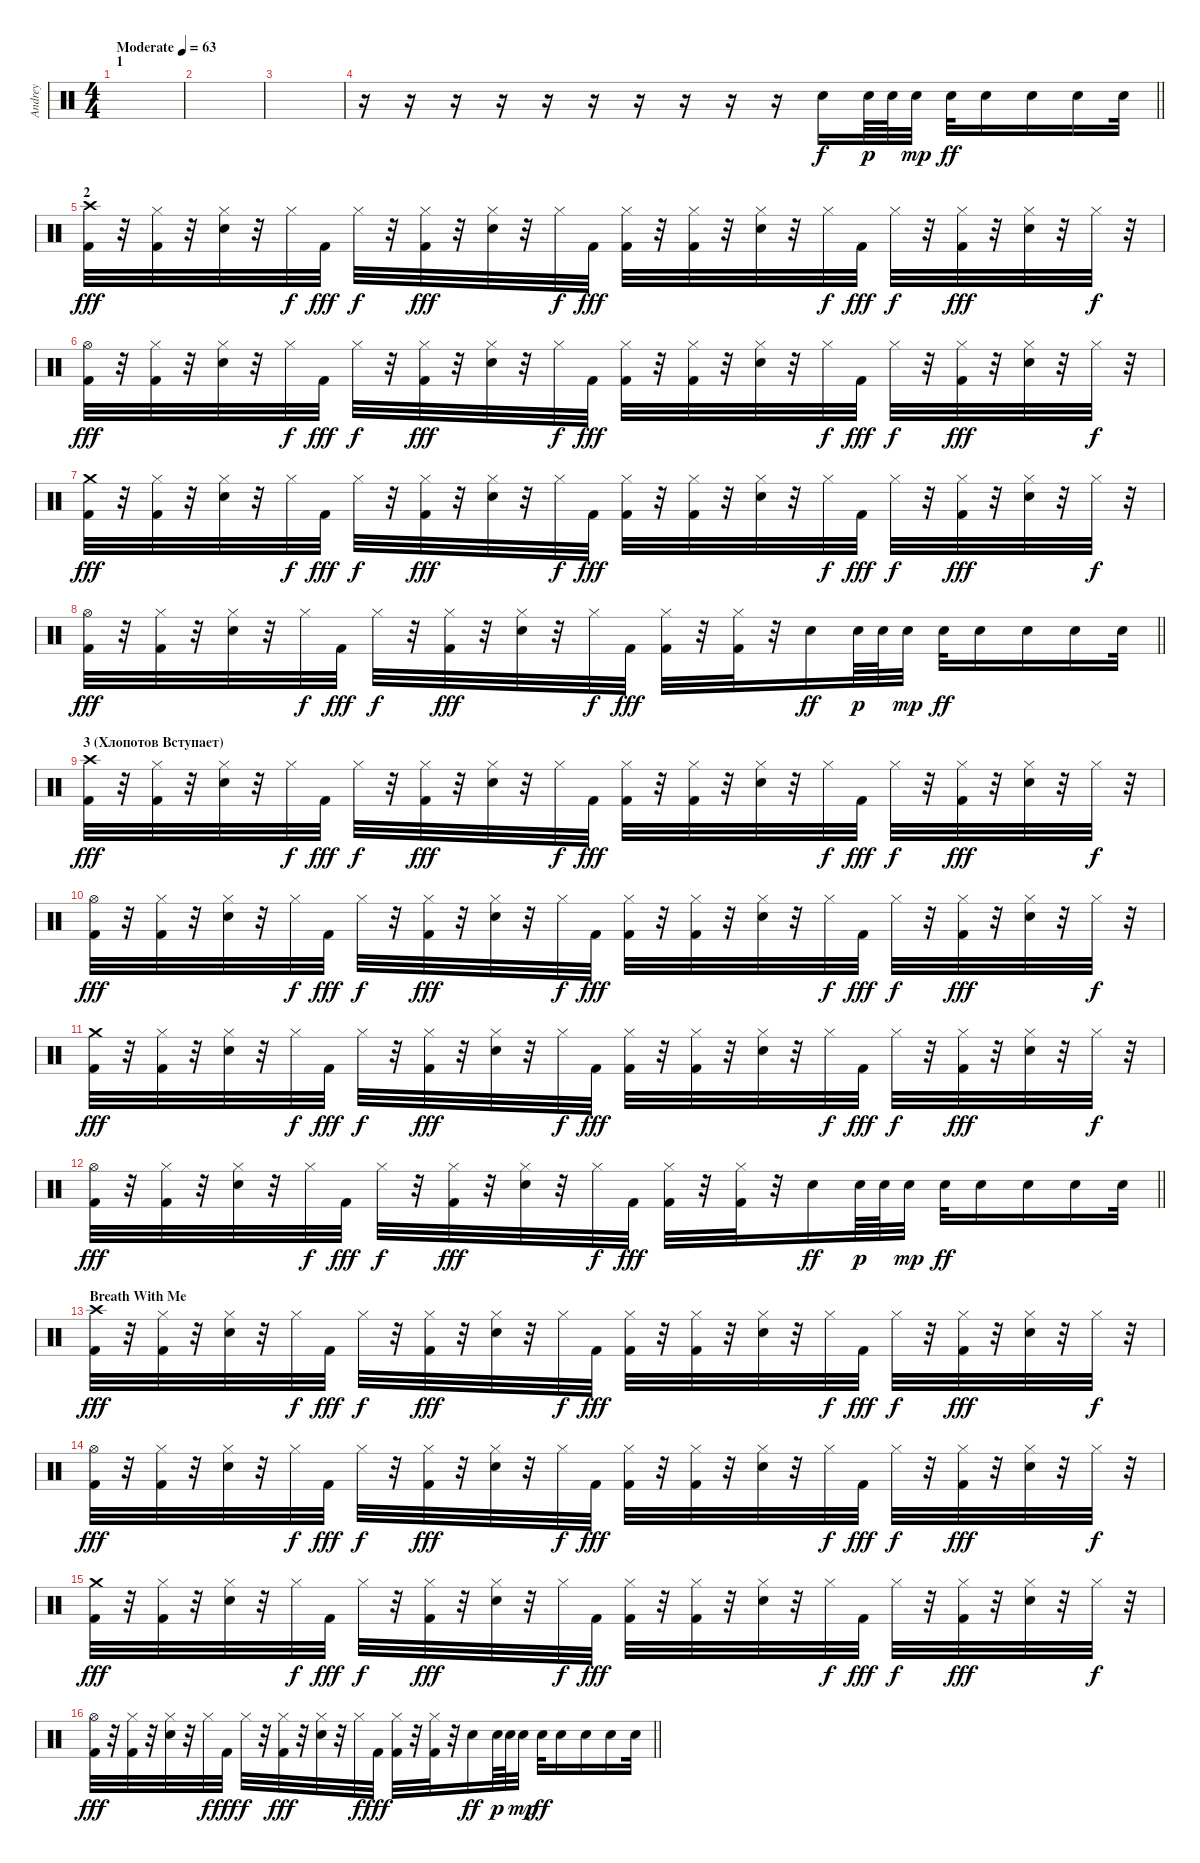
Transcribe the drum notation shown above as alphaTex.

\track ("Andrey" "Andrey") {instrument percussion}
\staff {score}
\articulation defaults
\ts (4 4)
\section ("" "1")
\tempo (63 "Moderate")
\clef neutral
\ks c
|
|
|
\barLineRight lightlight
r.16 r.16 r.16 r.16 r.16 r.16 r.16 r.16 r.16 r.16 "Electric Snare (hit)".16 "Electric Snare (hit)".64{dy p} "Electric Snare (hit)".64 "Electric Snare (hit)".32{dy mp} "Electric Snare (hit)".32{dy ff} "Electric Snare (hit)".16 "Electric Snare (hit)".16 "Electric Snare (hit)".16 "Electric Snare (hit)".32 |
\section ("" "2")
("Crash high (hit)" "Kick (hit) 2").32{dy fff} r.32 ("Hi-Hat (closed)" "Kick (hit) 2").32 r.32 ("Hi-Hat (closed)" "Snare (hit) 2").32 r.32 "Hi-Hat (closed)".32{dy f} "Kick (hit) 2".32{dy fff} "Hi-Hat (closed)".32{dy f} r.32 ("Hi-Hat (closed)" "Kick (hit) 2").32{dy fff} r.32 ("Hi-Hat (closed)" "Snare (hit) 2").32 r.32 "Hi-Hat (closed)".32{dy f} "Kick (hit) 2".32{dy fff} ("Hi-Hat (closed)" "Kick (hit) 2").32 r.32 ("Hi-Hat (closed)" "Kick (hit) 2").32 r.32 ("Hi-Hat (closed)" "Snare (hit) 2").32 r.32 "Hi-Hat (closed)".32{dy f} "Kick (hit) 2".32{dy fff} "Hi-Hat (closed)".32{dy f} r.32 ("Hi-Hat (closed)" "Kick (hit) 2").32{dy fff} r.32 ("Hi-Hat (closed)" "Snare (hit) 2").32 r.32 "Hi-Hat (closed)".32{dy f} r.32 |
("Hi-Hat (open)" "Kick (hit) 2").32{dy fff} r.32 ("Hi-Hat (closed)" "Kick (hit) 2").32 r.32 ("Hi-Hat (closed)" "Snare (hit) 2").32 r.32 "Hi-Hat (closed)".32{dy f} "Kick (hit) 2".32{dy fff} "Hi-Hat (closed)".32{dy f} r.32 ("Hi-Hat (closed)" "Kick (hit) 2").32{dy fff} r.32 ("Hi-Hat (closed)" "Snare (hit) 2").32 r.32 "Hi-Hat (closed)".32{dy f} "Kick (hit) 2".32{dy fff} ("Hi-Hat (closed)" "Kick (hit) 2").32 r.32 ("Hi-Hat (closed)" "Kick (hit) 2").32 r.32 ("Hi-Hat (closed)" "Snare (hit) 2").32 r.32 "Hi-Hat (closed)".32{dy f} "Kick (hit) 2".32{dy fff} "Hi-Hat (closed)".32{dy f} r.32 ("Hi-Hat (closed)" "Kick (hit) 2").32{dy fff} r.32 ("Hi-Hat (closed)" "Snare (hit) 2").32 r.32 "Hi-Hat (closed)".32{dy f} r.32 |
("Crash medium (hit)" "Kick (hit) 2").32{dy fff} r.32 ("Hi-Hat (closed)" "Kick (hit) 2").32 r.32 ("Hi-Hat (closed)" "Snare (hit) 2").32 r.32 "Hi-Hat (closed)".32{dy f} "Kick (hit) 2".32{dy fff} "Hi-Hat (closed)".32{dy f} r.32 ("Hi-Hat (closed)" "Kick (hit) 2").32{dy fff} r.32 ("Hi-Hat (closed)" "Snare (hit) 2").32 r.32 "Hi-Hat (closed)".32{dy f} "Kick (hit) 2".32{dy fff} ("Hi-Hat (closed)" "Kick (hit) 2").32 r.32 ("Hi-Hat (closed)" "Kick (hit) 2").32 r.32 ("Hi-Hat (closed)" "Snare (hit) 2").32 r.32 "Hi-Hat (closed)".32{dy f} "Kick (hit) 2".32{dy fff} "Hi-Hat (closed)".32{dy f} r.32 ("Hi-Hat (closed)" "Kick (hit) 2").32{dy fff} r.32 ("Hi-Hat (closed)" "Snare (hit) 2").32 r.32 "Hi-Hat (closed)".32{dy f} r.32 |
\barLineRight lightlight
("Hi-Hat (open)" "Kick (hit) 2").32{dy fff} r.32 ("Hi-Hat (closed)" "Kick (hit) 2").32 r.32 ("Hi-Hat (closed)" "Snare (hit) 2").32 r.32 "Hi-Hat (closed)".32{dy f} "Kick (hit) 2".32{dy fff} "Hi-Hat (closed)".32{dy f} r.32 ("Hi-Hat (closed)" "Kick (hit) 2").32{dy fff} r.32 ("Hi-Hat (closed)" "Snare (hit) 2").32 r.32 "Hi-Hat (closed)".32{dy f} "Kick (hit) 2".32{dy fff} ("Hi-Hat (closed)" "Kick (hit) 2").32 r.32 ("Hi-Hat (closed)" "Kick (hit) 2").32 r.32 "Electric Snare (hit)".16{dy ff} "Electric Snare (hit)".64{dy p} "Electric Snare (hit)".64 "Electric Snare (hit)".32{dy mp} "Electric Snare (hit)".32{dy ff} "Electric Snare (hit)".16 "Electric Snare (hit)".16 "Electric Snare (hit)".16 "Electric Snare (hit)".32 |
\section ("" "3 (Хлопотов Вступает)")
("Crash high (hit)" "Kick (hit) 2").32{dy fff} r.32 ("Hi-Hat (closed)" "Kick (hit) 2").32 r.32 ("Hi-Hat (closed)" "Snare (hit) 2").32 r.32 "Hi-Hat (closed)".32{dy f} "Kick (hit) 2".32{dy fff} "Hi-Hat (closed)".32{dy f} r.32 ("Hi-Hat (closed)" "Kick (hit) 2").32{dy fff} r.32 ("Hi-Hat (closed)" "Snare (hit) 2").32 r.32 "Hi-Hat (closed)".32{dy f} "Kick (hit) 2".32{dy fff} ("Hi-Hat (closed)" "Kick (hit) 2").32 r.32 ("Hi-Hat (closed)" "Kick (hit) 2").32 r.32 ("Hi-Hat (closed)" "Snare (hit) 2").32 r.32 "Hi-Hat (closed)".32{dy f} "Kick (hit) 2".32{dy fff} "Hi-Hat (closed)".32{dy f} r.32 ("Hi-Hat (closed)" "Kick (hit) 2").32{dy fff} r.32 ("Hi-Hat (closed)" "Snare (hit) 2").32 r.32 "Hi-Hat (closed)".32{dy f} r.32 |
("Hi-Hat (open)" "Kick (hit) 2").32{dy fff} r.32 ("Hi-Hat (closed)" "Kick (hit) 2").32 r.32 ("Hi-Hat (closed)" "Snare (hit) 2").32 r.32 "Hi-Hat (closed)".32{dy f} "Kick (hit) 2".32{dy fff} "Hi-Hat (closed)".32{dy f} r.32 ("Hi-Hat (closed)" "Kick (hit) 2").32{dy fff} r.32 ("Hi-Hat (closed)" "Snare (hit) 2").32 r.32 "Hi-Hat (closed)".32{dy f} "Kick (hit) 2".32{dy fff} ("Hi-Hat (closed)" "Kick (hit) 2").32 r.32 ("Hi-Hat (closed)" "Kick (hit) 2").32 r.32 ("Hi-Hat (closed)" "Snare (hit) 2").32 r.32 "Hi-Hat (closed)".32{dy f} "Kick (hit) 2".32{dy fff} "Hi-Hat (closed)".32{dy f} r.32 ("Hi-Hat (closed)" "Kick (hit) 2").32{dy fff} r.32 ("Hi-Hat (closed)" "Snare (hit) 2").32 r.32 "Hi-Hat (closed)".32{dy f} r.32 |
("Crash medium (hit)" "Kick (hit) 2").32{dy fff} r.32 ("Hi-Hat (closed)" "Kick (hit) 2").32 r.32 ("Hi-Hat (closed)" "Snare (hit) 2").32 r.32 "Hi-Hat (closed)".32{dy f} "Kick (hit) 2".32{dy fff} "Hi-Hat (closed)".32{dy f} r.32 ("Hi-Hat (closed)" "Kick (hit) 2").32{dy fff} r.32 ("Hi-Hat (closed)" "Snare (hit) 2").32 r.32 "Hi-Hat (closed)".32{dy f} "Kick (hit) 2".32{dy fff} ("Hi-Hat (closed)" "Kick (hit) 2").32 r.32 ("Hi-Hat (closed)" "Kick (hit) 2").32 r.32 ("Hi-Hat (closed)" "Snare (hit) 2").32 r.32 "Hi-Hat (closed)".32{dy f} "Kick (hit) 2".32{dy fff} "Hi-Hat (closed)".32{dy f} r.32 ("Hi-Hat (closed)" "Kick (hit) 2").32{dy fff} r.32 ("Hi-Hat (closed)" "Snare (hit) 2").32 r.32 "Hi-Hat (closed)".32{dy f} r.32 |
\barLineRight lightlight
("Hi-Hat (open)" "Kick (hit) 2").32{dy fff} r.32 ("Hi-Hat (closed)" "Kick (hit) 2").32 r.32 ("Hi-Hat (closed)" "Snare (hit) 2").32 r.32 "Hi-Hat (closed)".32{dy f} "Kick (hit) 2".32{dy fff} "Hi-Hat (closed)".32{dy f} r.32 ("Hi-Hat (closed)" "Kick (hit) 2").32{dy fff} r.32 ("Hi-Hat (closed)" "Snare (hit) 2").32 r.32 "Hi-Hat (closed)".32{dy f} "Kick (hit) 2".32{dy fff} ("Hi-Hat (closed)" "Kick (hit) 2").32 r.32 ("Hi-Hat (closed)" "Kick (hit) 2").32 r.32 "Electric Snare (hit)".16{dy ff} "Electric Snare (hit)".64{dy p} "Electric Snare (hit)".64 "Electric Snare (hit)".32{dy mp} "Electric Snare (hit)".32{dy ff} "Electric Snare (hit)".16 "Electric Snare (hit)".16 "Electric Snare (hit)".16 "Electric Snare (hit)".32 |
\section ("" "Breath With Me")
("Crash high (hit)" "Kick (hit) 2").32{dy fff} r.32 ("Hi-Hat (closed)" "Kick (hit) 2").32 r.32 ("Hi-Hat (closed)" "Snare (hit) 2").32 r.32 "Hi-Hat (closed)".32{dy f} "Kick (hit) 2".32{dy fff} "Hi-Hat (closed)".32{dy f} r.32 ("Hi-Hat (closed)" "Kick (hit) 2").32{dy fff} r.32 ("Hi-Hat (closed)" "Snare (hit) 2").32 r.32 "Hi-Hat (closed)".32{dy f} "Kick (hit) 2".32{dy fff} ("Hi-Hat (closed)" "Kick (hit) 2").32 r.32 ("Hi-Hat (closed)" "Kick (hit) 2").32 r.32 ("Hi-Hat (closed)" "Snare (hit) 2").32 r.32 "Hi-Hat (closed)".32{dy f} "Kick (hit) 2".32{dy fff} "Hi-Hat (closed)".32{dy f} r.32 ("Hi-Hat (closed)" "Kick (hit) 2").32{dy fff} r.32 ("Hi-Hat (closed)" "Snare (hit) 2").32 r.32 "Hi-Hat (closed)".32{dy f} r.32 |
("Hi-Hat (open)" "Kick (hit) 2").32{dy fff} r.32 ("Hi-Hat (closed)" "Kick (hit) 2").32 r.32 ("Hi-Hat (closed)" "Snare (hit) 2").32 r.32 "Hi-Hat (closed)".32{dy f} "Kick (hit) 2".32{dy fff} "Hi-Hat (closed)".32{dy f} r.32 ("Hi-Hat (closed)" "Kick (hit) 2").32{dy fff} r.32 ("Hi-Hat (closed)" "Snare (hit) 2").32 r.32 "Hi-Hat (closed)".32{dy f} "Kick (hit) 2".32{dy fff} ("Hi-Hat (closed)" "Kick (hit) 2").32 r.32 ("Hi-Hat (closed)" "Kick (hit) 2").32 r.32 ("Hi-Hat (closed)" "Snare (hit) 2").32 r.32 "Hi-Hat (closed)".32{dy f} "Kick (hit) 2".32{dy fff} "Hi-Hat (closed)".32{dy f} r.32 ("Hi-Hat (closed)" "Kick (hit) 2").32{dy fff} r.32 ("Hi-Hat (closed)" "Snare (hit) 2").32 r.32 "Hi-Hat (closed)".32{dy f} r.32 |
("Crash medium (hit)" "Kick (hit) 2").32{dy fff} r.32 ("Hi-Hat (closed)" "Kick (hit) 2").32 r.32 ("Hi-Hat (closed)" "Snare (hit) 2").32 r.32 "Hi-Hat (closed)".32{dy f} "Kick (hit) 2".32{dy fff} "Hi-Hat (closed)".32{dy f} r.32 ("Hi-Hat (closed)" "Kick (hit) 2").32{dy fff} r.32 ("Hi-Hat (closed)" "Snare (hit) 2").32 r.32 "Hi-Hat (closed)".32{dy f} "Kick (hit) 2".32{dy fff} ("Hi-Hat (closed)" "Kick (hit) 2").32 r.32 ("Hi-Hat (closed)" "Kick (hit) 2").32 r.32 ("Hi-Hat (closed)" "Snare (hit) 2").32 r.32 "Hi-Hat (closed)".32{dy f} "Kick (hit) 2".32{dy fff} "Hi-Hat (closed)".32{dy f} r.32 ("Hi-Hat (closed)" "Kick (hit) 2").32{dy fff} r.32 ("Hi-Hat (closed)" "Snare (hit) 2").32 r.32 "Hi-Hat (closed)".32{dy f} r.32 |
\barLineRight lightlight
("Hi-Hat (open)" "Kick (hit) 2").32{dy fff} r.32 ("Hi-Hat (closed)" "Kick (hit) 2").32 r.32 ("Hi-Hat (closed)" "Snare (hit) 2").32 r.32 "Hi-Hat (closed)".32{dy f} "Kick (hit) 2".32{dy fff} "Hi-Hat (closed)".32{dy f} r.32 ("Hi-Hat (closed)" "Kick (hit) 2").32{dy fff} r.32 ("Hi-Hat (closed)" "Snare (hit) 2").32 r.32 "Hi-Hat (closed)".32{dy f} "Kick (hit) 2".32{dy fff} ("Hi-Hat (closed)" "Kick (hit) 2").32 r.32 ("Hi-Hat (closed)" "Kick (hit) 2").32 r.32 "Electric Snare (hit)".16{dy ff} "Electric Snare (hit)".64{dy p} "Electric Snare (hit)".64 "Electric Snare (hit)".32{dy mp} "Electric Snare (hit)".32{dy ff} "Electric Snare (hit)".16 "Electric Snare (hit)".16 "Electric Snare (hit)".16 "Electric Snare (hit)".32
